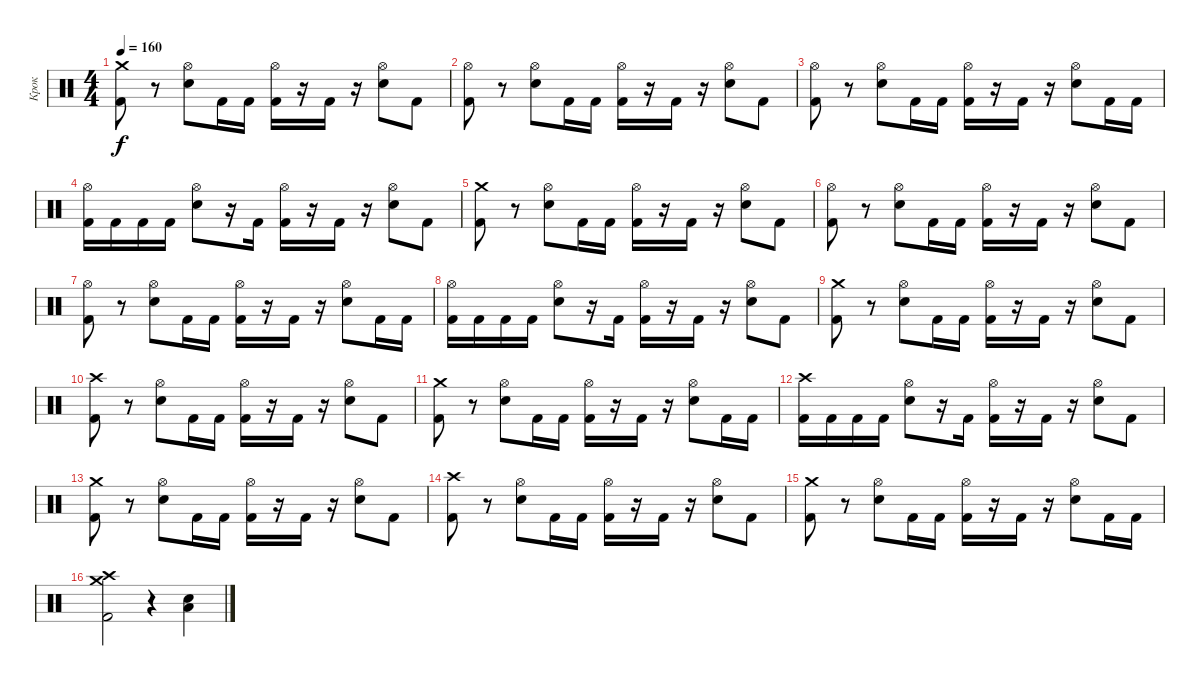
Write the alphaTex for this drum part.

\track ("Крок" "Крок") {instrument percussion}
\staff {score}
\articulation defaults
\ts (4 4)
\tempo 160
\clef neutral
\ks c
("Kick (hit) 2" "Crash medium (hit)").8{dy f} r.8 ("Electric Snare (hit)" "Hi-Hat (open)").8 "Kick (hit) 2".16 "Kick (hit) 2".16 ("Kick (hit) 2" "Hi-Hat (open)").16 r.16 "Kick (hit) 2".16 r.16 ("Electric Snare (hit)" "Hi-Hat (open)").8 "Kick (hit) 2".8 |
("Kick (hit) 2" "Hi-Hat (open)").8 r.8 ("Electric Snare (hit)" "Hi-Hat (open)").8 "Kick (hit) 2".16 "Kick (hit) 2".16 ("Kick (hit) 2" "Hi-Hat (open)").16 r.16 "Kick (hit) 2".16 r.16 ("Electric Snare (hit)" "Hi-Hat (open)").8 "Kick (hit) 2".8 |
("Kick (hit) 2" "Hi-Hat (open)").8 r.8 ("Electric Snare (hit)" "Hi-Hat (open)").8 "Kick (hit) 2".16 "Kick (hit) 2".16 ("Kick (hit) 2" "Hi-Hat (open)").16 r.16 "Kick (hit) 2".16 r.16 ("Electric Snare (hit)" "Hi-Hat (open)").8 "Kick (hit) 2".16 "Kick (hit) 2".16 |
("Kick (hit) 2" "Hi-Hat (open)").16 "Kick (hit) 2".16 "Kick (hit) 2".16 "Kick (hit) 2".16 ("Electric Snare (hit)" "Hi-Hat (open)").8 r.16 "Kick (hit) 2".16 ("Kick (hit) 2" "Hi-Hat (open)").16 r.16 "Kick (hit) 2".16 r.16 ("Electric Snare (hit)" "Hi-Hat (open)").8 "Kick (hit) 2".8 |
("Kick (hit) 2" "Crash medium (hit)").8 r.8 ("Electric Snare (hit)" "Hi-Hat (open)").8 "Kick (hit) 2".16 "Kick (hit) 2".16 ("Kick (hit) 2" "Hi-Hat (open)").16 r.16 "Kick (hit) 2".16 r.16 ("Electric Snare (hit)" "Hi-Hat (open)").8 "Kick (hit) 2".8 |
("Kick (hit) 2" "Hi-Hat (open)").8 r.8 ("Electric Snare (hit)" "Hi-Hat (open)").8 "Kick (hit) 2".16 "Kick (hit) 2".16 ("Kick (hit) 2" "Hi-Hat (open)").16 r.16 "Kick (hit) 2".16 r.16 ("Electric Snare (hit)" "Hi-Hat (open)").8 "Kick (hit) 2".8 |
("Kick (hit) 2" "Hi-Hat (open)").8 r.8 ("Electric Snare (hit)" "Hi-Hat (open)").8 "Kick (hit) 2".16 "Kick (hit) 2".16 ("Kick (hit) 2" "Hi-Hat (open)").16 r.16 "Kick (hit) 2".16 r.16 ("Electric Snare (hit)" "Hi-Hat (open)").8 "Kick (hit) 2".16 "Kick (hit) 2".16 |
("Kick (hit) 2" "Hi-Hat (open)").16 "Kick (hit) 2".16 "Kick (hit) 2".16 "Kick (hit) 2".16 ("Electric Snare (hit)" "Hi-Hat (open)").8 r.16 "Kick (hit) 2".16 ("Kick (hit) 2" "Hi-Hat (open)").16 r.16 "Kick (hit) 2".16 r.16 ("Electric Snare (hit)" "Hi-Hat (open)").8 "Kick (hit) 2".8 |
("Kick (hit) 2" "Crash medium (hit)").8 r.8 ("Electric Snare (hit)" "Hi-Hat (open)").8 "Kick (hit) 2".16 "Kick (hit) 2".16 ("Kick (hit) 2" "Hi-Hat (open)").16 r.16 "Kick (hit) 2".16 r.16 ("Electric Snare (hit)" "Hi-Hat (open)").8 "Kick (hit) 2".8 |
("Kick (hit) 2" "Crash high (hit)").8 r.8 ("Electric Snare (hit)" "Hi-Hat (open)").8 "Kick (hit) 2".16 "Kick (hit) 2".16 ("Kick (hit) 2" "Hi-Hat (open)").16 r.16 "Kick (hit) 2".16 r.16 ("Electric Snare (hit)" "Hi-Hat (open)").8 "Kick (hit) 2".8 |
("Kick (hit) 2" "Crash medium (hit)").8 r.8 ("Electric Snare (hit)" "Hi-Hat (open)").8 "Kick (hit) 2".16 "Kick (hit) 2".16 ("Kick (hit) 2" "Hi-Hat (open)").16 r.16 "Kick (hit) 2".16 r.16 ("Electric Snare (hit)" "Hi-Hat (open)").8 "Kick (hit) 2".16 "Kick (hit) 2".16 |
("Kick (hit) 2" "Crash high (hit)").16 "Kick (hit) 2".16 "Kick (hit) 2".16 "Kick (hit) 2".16 ("Electric Snare (hit)" "Hi-Hat (open)").8 r.16 "Kick (hit) 2".16 ("Kick (hit) 2" "Hi-Hat (open)").16 r.16 "Kick (hit) 2".16 r.16 ("Electric Snare (hit)" "Hi-Hat (open)").8 "Kick (hit) 2".8 |
("Kick (hit) 2" "Crash medium (hit)").8 r.8 ("Electric Snare (hit)" "Hi-Hat (open)").8 "Kick (hit) 2".16 "Kick (hit) 2".16 ("Kick (hit) 2" "Hi-Hat (open)").16 r.16 "Kick (hit) 2".16 r.16 ("Electric Snare (hit)" "Hi-Hat (open)").8 "Kick (hit) 2".8 |
("Kick (hit) 2" "Crash high (hit)").8 r.8 ("Electric Snare (hit)" "Hi-Hat (open)").8 "Kick (hit) 2".16 "Kick (hit) 2".16 ("Kick (hit) 2" "Hi-Hat (open)").16 r.16 "Kick (hit) 2".16 r.16 ("Electric Snare (hit)" "Hi-Hat (open)").8 "Kick (hit) 2".8 |
("Kick (hit) 2" "Crash medium (hit)").8 r.8 ("Electric Snare (hit)" "Hi-Hat (open)").8 "Kick (hit) 2".16 "Kick (hit) 2".16 ("Kick (hit) 2" "Hi-Hat (open)").16 r.16 "Kick (hit) 2".16 r.16 ("Electric Snare (hit)" "Hi-Hat (open)").8 "Kick (hit) 2".16 "Kick (hit) 2".16 |
("Kick (hit) 2" "Crash high (hit)" "Crash medium (hit)").2 r.4 ("Electric Snare (hit)" "Low Floor Tom (hit)").4
